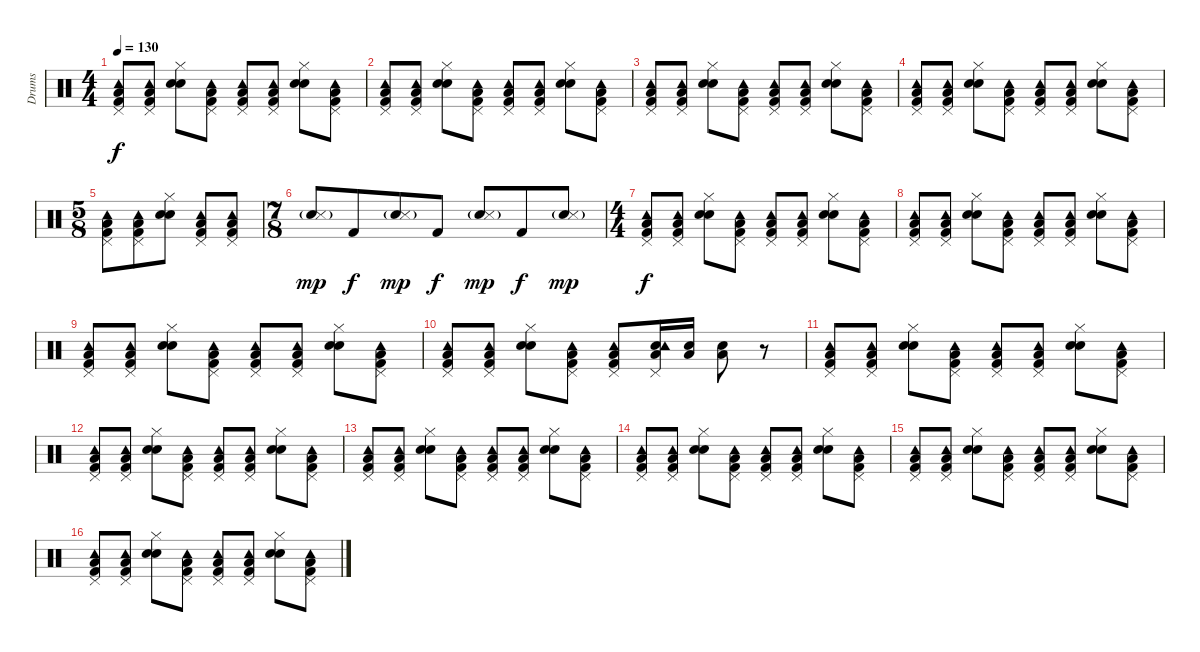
\track ("Drums" "Drums") {instrument percussion}
\staff {score}
\articulation defaults
\ts (4 4)
\tempo 130
\clef neutral
\ks c
("Kick (hit) 2" "Low Floor Tom (hit)" "Pedal Hi-Hat (hit)" "Tambourine (hit)").8{dy f volume 13} ("Kick (hit) 2" "Low Floor Tom (hit)" "Pedal Hi-Hat (hit)" "Tambourine (hit)").8 ("Electric Snare (hit)" "Hand Clap (hit)" "Hi-Hat (closed)").8 ("Kick (hit) 2" "Low Floor Tom (hit)" "Pedal Hi-Hat (hit)" "Tambourine (hit)").8 ("Kick (hit) 2" "Low Floor Tom (hit)" "Pedal Hi-Hat (hit)" "Tambourine (hit)").8 ("Kick (hit) 2" "Low Floor Tom (hit)" "Pedal Hi-Hat (hit)" "Tambourine (hit)").8 ("Electric Snare (hit)" "Hand Clap (hit)" "Hi-Hat (closed)").8 ("Kick (hit) 2" "Low Floor Tom (hit)" "Pedal Hi-Hat (hit)" "Tambourine (hit)").8 |
("Kick (hit) 2" "Low Floor Tom (hit)" "Pedal Hi-Hat (hit)" "Tambourine (hit)").8{volume 13} ("Kick (hit) 2" "Low Floor Tom (hit)" "Pedal Hi-Hat (hit)" "Tambourine (hit)").8 ("Electric Snare (hit)" "Hand Clap (hit)" "Hi-Hat (closed)").8 ("Kick (hit) 2" "Low Floor Tom (hit)" "Pedal Hi-Hat (hit)" "Tambourine (hit)").8 ("Kick (hit) 2" "Low Floor Tom (hit)" "Pedal Hi-Hat (hit)" "Tambourine (hit)").8 ("Kick (hit) 2" "Low Floor Tom (hit)" "Pedal Hi-Hat (hit)" "Tambourine (hit)").8 ("Electric Snare (hit)" "Hand Clap (hit)" "Hi-Hat (closed)").8 ("Kick (hit) 2" "Low Floor Tom (hit)" "Pedal Hi-Hat (hit)" "Tambourine (hit)").8 |
("Kick (hit) 2" "Low Floor Tom (hit)" "Pedal Hi-Hat (hit)" "Tambourine (hit)").8{volume 13} ("Kick (hit) 2" "Low Floor Tom (hit)" "Pedal Hi-Hat (hit)" "Tambourine (hit)").8 ("Electric Snare (hit)" "Hand Clap (hit)" "Hi-Hat (closed)").8 ("Kick (hit) 2" "Low Floor Tom (hit)" "Pedal Hi-Hat (hit)" "Tambourine (hit)").8 ("Kick (hit) 2" "Low Floor Tom (hit)" "Pedal Hi-Hat (hit)" "Tambourine (hit)").8 ("Kick (hit) 2" "Low Floor Tom (hit)" "Pedal Hi-Hat (hit)" "Tambourine (hit)").8 ("Electric Snare (hit)" "Hand Clap (hit)" "Hi-Hat (closed)").8 ("Kick (hit) 2" "Low Floor Tom (hit)" "Pedal Hi-Hat (hit)" "Tambourine (hit)").8 |
("Kick (hit) 2" "Low Floor Tom (hit)" "Pedal Hi-Hat (hit)" "Tambourine (hit)").8{volume 13} ("Kick (hit) 2" "Low Floor Tom (hit)" "Pedal Hi-Hat (hit)" "Tambourine (hit)").8 ("Electric Snare (hit)" "Hand Clap (hit)" "Hi-Hat (closed)").8 ("Kick (hit) 2" "Low Floor Tom (hit)" "Pedal Hi-Hat (hit)" "Tambourine (hit)").8 ("Kick (hit) 2" "Low Floor Tom (hit)" "Pedal Hi-Hat (hit)" "Tambourine (hit)").8 ("Kick (hit) 2" "Low Floor Tom (hit)" "Pedal Hi-Hat (hit)" "Tambourine (hit)").8 ("Electric Snare (hit)" "Hand Clap (hit)" "Hi-Hat (closed)").8 ("Kick (hit) 2" "Low Floor Tom (hit)" "Pedal Hi-Hat (hit)" "Tambourine (hit)").8 |
\ts (5 8)
("Kick (hit) 2" "Low Floor Tom (hit)" "Pedal Hi-Hat (hit)" "Tambourine (hit)").8{volume 13} ("Kick (hit) 2" "Low Floor Tom (hit)" "Pedal Hi-Hat (hit)" "Tambourine (hit)").8 ("Electric Snare (hit)" "Hand Clap (hit)" "Hi-Hat (closed)").8 ("Kick (hit) 2" "Low Floor Tom (hit)" "Pedal Hi-Hat (hit)" "Tambourine (hit)").8 ("Kick (hit) 2" "Low Floor Tom (hit)" "Pedal Hi-Hat (hit)" "Tambourine (hit)").8 |
\ts (7 8)
("Electric Snare (hit)"{g} "Snare (side stick) 3").8{dy mp} "Kick (hit) 2".8{dy f} ("Electric Snare (hit)"{g} "Snare (side stick) 3").8{dy mp} "Kick (hit) 2".8{dy f} ("Electric Snare (hit)"{g} "Snare (side stick) 3").8{dy mp} "Kick (hit) 2".8{dy f} ("Electric Snare (hit)"{g} "Snare (side stick) 3").8{dy mp} |
\ts (4 4)
("Kick (hit) 2" "Low Floor Tom (hit)" "Pedal Hi-Hat (hit)" "Tambourine (hit)").8{dy f volume 13} ("Kick (hit) 2" "Low Floor Tom (hit)" "Pedal Hi-Hat (hit)" "Tambourine (hit)").8 ("Electric Snare (hit)" "Hand Clap (hit)" "Hi-Hat (closed)").8 ("Kick (hit) 2" "Low Floor Tom (hit)" "Pedal Hi-Hat (hit)" "Tambourine (hit)").8 ("Kick (hit) 2" "Low Floor Tom (hit)" "Pedal Hi-Hat (hit)" "Tambourine (hit)").8 ("Kick (hit) 2" "Low Floor Tom (hit)" "Pedal Hi-Hat (hit)" "Tambourine (hit)").8 ("Electric Snare (hit)" "Hand Clap (hit)" "Hi-Hat (closed)").8 ("Kick (hit) 2" "Low Floor Tom (hit)" "Pedal Hi-Hat (hit)" "Tambourine (hit)").8 |
("Kick (hit) 2" "Low Floor Tom (hit)" "Pedal Hi-Hat (hit)" "Tambourine (hit)").8{volume 13} ("Kick (hit) 2" "Low Floor Tom (hit)" "Pedal Hi-Hat (hit)" "Tambourine (hit)").8 ("Electric Snare (hit)" "Hand Clap (hit)" "Hi-Hat (closed)").8 ("Kick (hit) 2" "Low Floor Tom (hit)" "Pedal Hi-Hat (hit)" "Tambourine (hit)").8 ("Kick (hit) 2" "Low Floor Tom (hit)" "Pedal Hi-Hat (hit)" "Tambourine (hit)").8 ("Kick (hit) 2" "Low Floor Tom (hit)" "Pedal Hi-Hat (hit)" "Tambourine (hit)").8 ("Electric Snare (hit)" "Hand Clap (hit)" "Hi-Hat (closed)").8 ("Kick (hit) 2" "Low Floor Tom (hit)" "Pedal Hi-Hat (hit)" "Tambourine (hit)").8 |
("Kick (hit) 2" "Low Floor Tom (hit)" "Pedal Hi-Hat (hit)" "Tambourine (hit)").8{volume 13} ("Kick (hit) 2" "Low Floor Tom (hit)" "Pedal Hi-Hat (hit)" "Tambourine (hit)").8 ("Electric Snare (hit)" "Hand Clap (hit)" "Hi-Hat (closed)").8 ("Kick (hit) 2" "Low Floor Tom (hit)" "Pedal Hi-Hat (hit)" "Tambourine (hit)").8 ("Kick (hit) 2" "Low Floor Tom (hit)" "Pedal Hi-Hat (hit)" "Tambourine (hit)").8 ("Kick (hit) 2" "Low Floor Tom (hit)" "Pedal Hi-Hat (hit)" "Tambourine (hit)").8 ("Electric Snare (hit)" "Hand Clap (hit)" "Hi-Hat (closed)").8 ("Kick (hit) 2" "Low Floor Tom (hit)" "Pedal Hi-Hat (hit)" "Tambourine (hit)").8 |
("Kick (hit) 2" "Low Floor Tom (hit)" "Pedal Hi-Hat (hit)" "Tambourine (hit)").8{volume 13} ("Kick (hit) 2" "Low Floor Tom (hit)" "Pedal Hi-Hat (hit)" "Tambourine (hit)").8 ("Electric Snare (hit)" "Hand Clap (hit)" "Hi-Hat (closed)").8 ("Kick (hit) 2" "Low Floor Tom (hit)" "Pedal Hi-Hat (hit)" "Tambourine (hit)").8 ("Kick (hit) 2" "Low Floor Tom (hit)" "Pedal Hi-Hat (hit)" "Tambourine (hit)").8 ("Electric Snare (hit)" "Low Floor Tom (hit)" "Pedal Hi-Hat (hit)" "Tambourine (hit)").16 ("Electric Snare (hit)" "Low Floor Tom (hit)").16 ("Electric Snare (hit)" "Low Floor Tom (hit)").8 r.8 |
("Kick (hit) 2" "Low Floor Tom (hit)" "Pedal Hi-Hat (hit)" "Tambourine (hit)").8{volume 13} ("Kick (hit) 2" "Low Floor Tom (hit)" "Pedal Hi-Hat (hit)" "Tambourine (hit)").8 ("Electric Snare (hit)" "Hand Clap (hit)" "Hi-Hat (closed)").8 ("Kick (hit) 2" "Low Floor Tom (hit)" "Pedal Hi-Hat (hit)" "Tambourine (hit)").8 ("Kick (hit) 2" "Low Floor Tom (hit)" "Pedal Hi-Hat (hit)" "Tambourine (hit)").8 ("Kick (hit) 2" "Low Floor Tom (hit)" "Pedal Hi-Hat (hit)" "Tambourine (hit)").8 ("Electric Snare (hit)" "Hand Clap (hit)" "Hi-Hat (closed)").8 ("Kick (hit) 2" "Low Floor Tom (hit)" "Pedal Hi-Hat (hit)" "Tambourine (hit)").8 |
("Kick (hit) 2" "Low Floor Tom (hit)" "Pedal Hi-Hat (hit)" "Tambourine (hit)").8{volume 13} ("Kick (hit) 2" "Low Floor Tom (hit)" "Pedal Hi-Hat (hit)" "Tambourine (hit)").8 ("Electric Snare (hit)" "Hand Clap (hit)" "Hi-Hat (closed)").8 ("Kick (hit) 2" "Low Floor Tom (hit)" "Pedal Hi-Hat (hit)" "Tambourine (hit)").8 ("Kick (hit) 2" "Low Floor Tom (hit)" "Pedal Hi-Hat (hit)" "Tambourine (hit)").8 ("Kick (hit) 2" "Low Floor Tom (hit)" "Pedal Hi-Hat (hit)" "Tambourine (hit)").8 ("Electric Snare (hit)" "Hand Clap (hit)" "Hi-Hat (closed)").8 ("Kick (hit) 2" "Low Floor Tom (hit)" "Pedal Hi-Hat (hit)" "Tambourine (hit)").8 |
("Kick (hit) 2" "Low Floor Tom (hit)" "Pedal Hi-Hat (hit)" "Tambourine (hit)").8{volume 13} ("Kick (hit) 2" "Low Floor Tom (hit)" "Pedal Hi-Hat (hit)" "Tambourine (hit)").8 ("Electric Snare (hit)" "Hand Clap (hit)" "Hi-Hat (closed)").8 ("Kick (hit) 2" "Low Floor Tom (hit)" "Pedal Hi-Hat (hit)" "Tambourine (hit)").8 ("Kick (hit) 2" "Low Floor Tom (hit)" "Pedal Hi-Hat (hit)" "Tambourine (hit)").8 ("Kick (hit) 2" "Low Floor Tom (hit)" "Pedal Hi-Hat (hit)" "Tambourine (hit)").8 ("Electric Snare (hit)" "Hand Clap (hit)" "Hi-Hat (closed)").8 ("Kick (hit) 2" "Low Floor Tom (hit)" "Pedal Hi-Hat (hit)" "Tambourine (hit)").8 |
("Kick (hit) 2" "Low Floor Tom (hit)" "Pedal Hi-Hat (hit)" "Tambourine (hit)").8{volume 13} ("Kick (hit) 2" "Low Floor Tom (hit)" "Pedal Hi-Hat (hit)" "Tambourine (hit)").8 ("Electric Snare (hit)" "Hand Clap (hit)" "Hi-Hat (closed)").8 ("Kick (hit) 2" "Low Floor Tom (hit)" "Pedal Hi-Hat (hit)" "Tambourine (hit)").8 ("Kick (hit) 2" "Low Floor Tom (hit)" "Pedal Hi-Hat (hit)" "Tambourine (hit)").8 ("Kick (hit) 2" "Low Floor Tom (hit)" "Pedal Hi-Hat (hit)" "Tambourine (hit)").8 ("Electric Snare (hit)" "Hand Clap (hit)" "Hi-Hat (closed)").8 ("Kick (hit) 2" "Low Floor Tom (hit)" "Pedal Hi-Hat (hit)" "Tambourine (hit)").8 |
("Kick (hit) 2" "Low Floor Tom (hit)" "Pedal Hi-Hat (hit)" "Tambourine (hit)").8{volume 13} ("Kick (hit) 2" "Low Floor Tom (hit)" "Pedal Hi-Hat (hit)" "Tambourine (hit)").8 ("Electric Snare (hit)" "Hand Clap (hit)" "Hi-Hat (closed)").8 ("Kick (hit) 2" "Low Floor Tom (hit)" "Pedal Hi-Hat (hit)" "Tambourine (hit)").8 ("Kick (hit) 2" "Low Floor Tom (hit)" "Pedal Hi-Hat (hit)" "Tambourine (hit)").8 ("Kick (hit) 2" "Low Floor Tom (hit)" "Pedal Hi-Hat (hit)" "Tambourine (hit)").8 ("Electric Snare (hit)" "Hand Clap (hit)" "Hi-Hat (closed)").8 ("Kick (hit) 2" "Low Floor Tom (hit)" "Pedal Hi-Hat (hit)" "Tambourine (hit)").8 |
("Kick (hit) 2" "Low Floor Tom (hit)" "Pedal Hi-Hat (hit)" "Tambourine (hit)").8{volume 13} ("Kick (hit) 2" "Low Floor Tom (hit)" "Pedal Hi-Hat (hit)" "Tambourine (hit)").8 ("Electric Snare (hit)" "Hand Clap (hit)" "Hi-Hat (closed)").8 ("Kick (hit) 2" "Low Floor Tom (hit)" "Pedal Hi-Hat (hit)" "Tambourine (hit)").8 ("Kick (hit) 2" "Low Floor Tom (hit)" "Pedal Hi-Hat (hit)" "Tambourine (hit)").8 ("Kick (hit) 2" "Low Floor Tom (hit)" "Pedal Hi-Hat (hit)" "Tambourine (hit)").8 ("Electric Snare (hit)" "Hand Clap (hit)" "Hi-Hat (closed)").8 ("Kick (hit) 2" "Low Floor Tom (hit)" "Pedal Hi-Hat (hit)" "Tambourine (hit)").8
